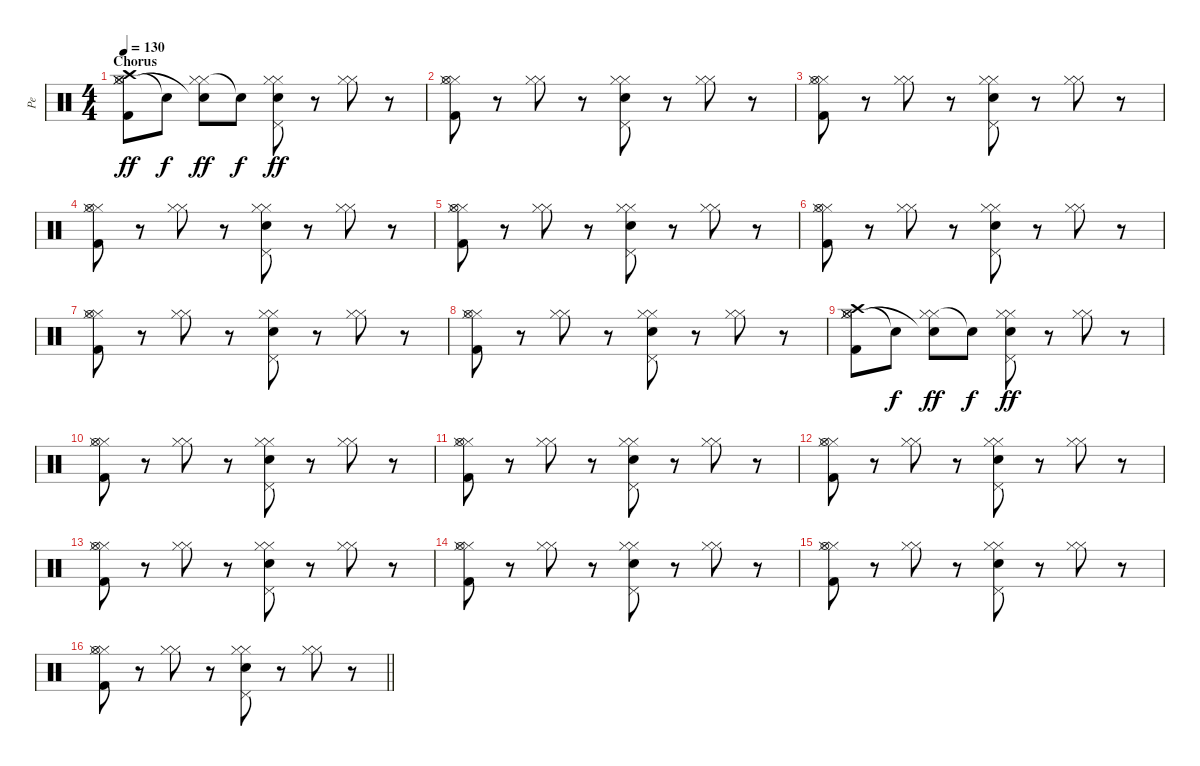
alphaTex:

\track ("Pe" "Pe") {instrument percussion}
\staff {score}
\articulation defaults
\ts (4 4)
\section ("" "Chorus")
\tempo 130
\clef neutral
\ks c
("Hi-Hat (closed)" "Hi-Hat (closed)" "Hi-Hat (open)" "Crash high (hit)" "Kick (hit) 2").8{dy ff} "Snare (hit)"{t}.8{dy f} ("Hi-Hat (closed)" "Hi-Hat (closed)" "Snare (hit)"{t}).8{dy ff} "Snare (hit)"{t}.8{dy f} ("Hi-Hat (closed)" "Hi-Hat (closed)" "Pedal Hi-Hat (hit)" "Electric Snare (hit)").8{dy ff} r.8 ("Hi-Hat (closed)" "Hi-Hat (closed)").8 r.8 |
("Hi-Hat (closed)" "Hi-Hat (closed)" "Hi-Hat (open)" "Kick (hit) 2").8 r.8 ("Hi-Hat (closed)" "Hi-Hat (closed)").8 r.8 ("Hi-Hat (closed)" "Hi-Hat (closed)" "Pedal Hi-Hat (hit)" "Electric Snare (hit)").8 r.8 ("Hi-Hat (closed)" "Hi-Hat (closed)").8 r.8 |
("Hi-Hat (closed)" "Hi-Hat (closed)" "Hi-Hat (open)" "Kick (hit) 2").8 r.8 ("Hi-Hat (closed)" "Hi-Hat (closed)").8 r.8 ("Hi-Hat (closed)" "Hi-Hat (closed)" "Pedal Hi-Hat (hit)" "Electric Snare (hit)").8 r.8 ("Hi-Hat (closed)" "Hi-Hat (closed)").8 r.8 |
("Hi-Hat (closed)" "Hi-Hat (closed)" "Hi-Hat (open)" "Kick (hit) 2").8 r.8 ("Hi-Hat (closed)" "Hi-Hat (closed)").8 r.8 ("Hi-Hat (closed)" "Hi-Hat (closed)" "Pedal Hi-Hat (hit)" "Electric Snare (hit)").8 r.8 ("Hi-Hat (closed)" "Hi-Hat (closed)").8 r.8 |
("Hi-Hat (closed)" "Hi-Hat (closed)" "Hi-Hat (open)" "Kick (hit) 2").8 r.8 ("Hi-Hat (closed)" "Hi-Hat (closed)").8 r.8 ("Hi-Hat (closed)" "Hi-Hat (closed)" "Pedal Hi-Hat (hit)" "Electric Snare (hit)").8 r.8 ("Hi-Hat (closed)" "Hi-Hat (closed)").8 r.8 |
("Hi-Hat (closed)" "Hi-Hat (closed)" "Hi-Hat (open)" "Kick (hit) 2").8 r.8 ("Hi-Hat (closed)" "Hi-Hat (closed)").8 r.8 ("Hi-Hat (closed)" "Hi-Hat (closed)" "Pedal Hi-Hat (hit)" "Electric Snare (hit)").8 r.8 ("Hi-Hat (closed)" "Hi-Hat (closed)").8 r.8 |
("Hi-Hat (closed)" "Hi-Hat (closed)" "Hi-Hat (open)" "Kick (hit) 2").8 r.8 ("Hi-Hat (closed)" "Hi-Hat (closed)").8 r.8 ("Hi-Hat (closed)" "Hi-Hat (closed)" "Pedal Hi-Hat (hit)" "Electric Snare (hit)").8 r.8 ("Hi-Hat (closed)" "Hi-Hat (closed)").8 r.8 |
("Hi-Hat (closed)" "Hi-Hat (closed)" "Hi-Hat (open)" "Kick (hit) 2").8 r.8 ("Hi-Hat (closed)" "Hi-Hat (closed)").8 r.8 ("Hi-Hat (closed)" "Hi-Hat (closed)" "Pedal Hi-Hat (hit)" "Electric Snare (hit)").8 r.8 ("Hi-Hat (closed)" "Hi-Hat (closed)").8 r.8 |
("Hi-Hat (closed)" "Hi-Hat (closed)" "Hi-Hat (open)" "Crash high (hit)" "Kick (hit) 2").8 "Snare (hit)"{t}.8{dy f} ("Hi-Hat (closed)" "Hi-Hat (closed)" "Snare (hit)"{t}).8{dy ff} "Snare (hit)"{t}.8{dy f} ("Hi-Hat (closed)" "Hi-Hat (closed)" "Pedal Hi-Hat (hit)" "Electric Snare (hit)").8{dy ff} r.8 ("Hi-Hat (closed)" "Hi-Hat (closed)").8 r.8 |
("Hi-Hat (closed)" "Hi-Hat (closed)" "Hi-Hat (open)" "Kick (hit) 2").8 r.8 ("Hi-Hat (closed)" "Hi-Hat (closed)").8 r.8 ("Hi-Hat (closed)" "Hi-Hat (closed)" "Pedal Hi-Hat (hit)" "Electric Snare (hit)").8 r.8 ("Hi-Hat (closed)" "Hi-Hat (closed)").8 r.8 |
("Hi-Hat (closed)" "Hi-Hat (closed)" "Hi-Hat (open)" "Kick (hit) 2").8 r.8 ("Hi-Hat (closed)" "Hi-Hat (closed)").8 r.8 ("Hi-Hat (closed)" "Hi-Hat (closed)" "Pedal Hi-Hat (hit)" "Electric Snare (hit)").8 r.8 ("Hi-Hat (closed)" "Hi-Hat (closed)").8 r.8 |
("Hi-Hat (closed)" "Hi-Hat (closed)" "Hi-Hat (open)" "Kick (hit) 2").8 r.8 ("Hi-Hat (closed)" "Hi-Hat (closed)").8 r.8 ("Hi-Hat (closed)" "Hi-Hat (closed)" "Pedal Hi-Hat (hit)" "Electric Snare (hit)").8 r.8 ("Hi-Hat (closed)" "Hi-Hat (closed)").8 r.8 |
("Hi-Hat (closed)" "Hi-Hat (closed)" "Hi-Hat (open)" "Kick (hit) 2").8 r.8 ("Hi-Hat (closed)" "Hi-Hat (closed)").8 r.8 ("Hi-Hat (closed)" "Hi-Hat (closed)" "Pedal Hi-Hat (hit)" "Electric Snare (hit)").8 r.8 ("Hi-Hat (closed)" "Hi-Hat (closed)").8 r.8 |
("Hi-Hat (closed)" "Hi-Hat (closed)" "Hi-Hat (open)" "Kick (hit) 2").8 r.8 ("Hi-Hat (closed)" "Hi-Hat (closed)").8 r.8 ("Hi-Hat (closed)" "Hi-Hat (closed)" "Pedal Hi-Hat (hit)" "Electric Snare (hit)").8 r.8 ("Hi-Hat (closed)" "Hi-Hat (closed)").8 r.8 |
("Hi-Hat (closed)" "Hi-Hat (closed)" "Hi-Hat (open)" "Kick (hit) 2").8 r.8 ("Hi-Hat (closed)" "Hi-Hat (closed)").8 r.8 ("Hi-Hat (closed)" "Hi-Hat (closed)" "Pedal Hi-Hat (hit)" "Electric Snare (hit)").8 r.8 ("Hi-Hat (closed)" "Hi-Hat (closed)").8 r.8 |
\barLineRight lightlight
("Hi-Hat (closed)" "Hi-Hat (closed)" "Hi-Hat (open)" "Kick (hit) 2").8 r.8 ("Hi-Hat (closed)" "Hi-Hat (closed)").8 r.8 ("Hi-Hat (closed)" "Hi-Hat (closed)" "Pedal Hi-Hat (hit)" "Electric Snare (hit)").8 r.8 ("Hi-Hat (closed)" "Hi-Hat (closed)").8 r.8
